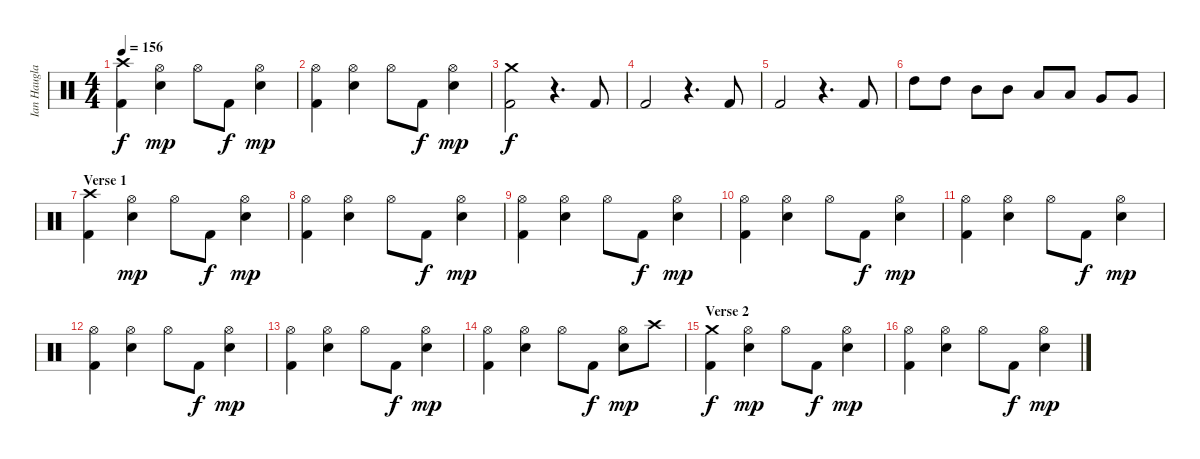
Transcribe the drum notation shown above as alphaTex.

\track ("Ian Haugland" "Ian Haugla") {instrument percussion}
\staff {score}
\articulation defaults
\ts (4 4)
\tempo 156
\clef neutral
\ks c
("Kick (hit) 2" "Crash high (hit)").4{dy f} ("Hi-Hat (open)" "Snare (hit) 2").4{dy mp} "Hi-Hat (open)".8 "Kick (hit) 2".8{dy f} ("Hi-Hat (open)" "Snare (hit) 2").4{dy mp} |
("Kick (hit) 2" "Hi-Hat (open)").4 ("Hi-Hat (open)" "Snare (hit) 2").4 "Hi-Hat (open)".8 "Kick (hit) 2".8{dy f} ("Hi-Hat (open)" "Snare (hit) 2").4{dy mp} |
("Kick (hit) 2" "Crash medium (hit)").2{dy f} r.4{d} "Kick (hit) 2".8 |
"Kick (hit) 2".2 r.4{d} "Kick (hit) 2".8 |
"Kick (hit) 2".2 r.4{d} "Kick (hit) 2".8 |
"High Tom (hit)".8 "High Tom (hit)".8 "Mid Tom (hit)".8 "Mid Tom (hit)".8 "Low Tom (hit)".8 "Low Tom (hit)".8 "Very Low Tom (hit)".8 "Very Low Tom (hit)".8 |
\section ("" "Verse 1")
("Kick (hit) 2" "Crash high (hit)").4 ("Hi-Hat (open)" "Snare (hit) 2").4{dy mp} "Hi-Hat (open)".8 "Kick (hit) 2".8{dy f} ("Hi-Hat (open)" "Snare (hit) 2").4{dy mp} |
("Kick (hit) 2" "Hi-Hat (open)").4 ("Hi-Hat (open)" "Snare (hit) 2").4 "Hi-Hat (open)".8 "Kick (hit) 2".8{dy f} ("Hi-Hat (open)" "Snare (hit) 2").4{dy mp} |
("Kick (hit) 2" "Hi-Hat (open)").4 ("Hi-Hat (open)" "Snare (hit) 2").4 "Hi-Hat (open)".8 "Kick (hit) 2".8{dy f} ("Hi-Hat (open)" "Snare (hit) 2").4{dy mp} |
("Kick (hit) 2" "Hi-Hat (open)").4 ("Hi-Hat (open)" "Snare (hit) 2").4 "Hi-Hat (open)".8 "Kick (hit) 2".8{dy f} ("Hi-Hat (open)" "Snare (hit) 2").4{dy mp} |
("Kick (hit) 2" "Hi-Hat (open)").4 ("Hi-Hat (open)" "Snare (hit) 2").4 "Hi-Hat (open)".8 "Kick (hit) 2".8{dy f} ("Hi-Hat (open)" "Snare (hit) 2").4{dy mp} |
("Kick (hit) 2" "Hi-Hat (open)").4 ("Hi-Hat (open)" "Snare (hit) 2").4 "Hi-Hat (open)".8 "Kick (hit) 2".8{dy f} ("Hi-Hat (open)" "Snare (hit) 2").4{dy mp} |
("Kick (hit) 2" "Hi-Hat (open)").4 ("Hi-Hat (open)" "Snare (hit) 2").4 "Hi-Hat (open)".8 "Kick (hit) 2".8{dy f} ("Hi-Hat (open)" "Snare (hit) 2").4{dy mp} |
("Kick (hit) 2" "Hi-Hat (open)").4 ("Hi-Hat (open)" "Snare (hit) 2").4 "Hi-Hat (open)".8 "Kick (hit) 2".8{dy f} ("Hi-Hat (open)" "Snare (hit) 2").8{dy mp} "Crash high (hit)".8 |
\section ("" "Verse 2")
("Kick (hit) 2" "Crash medium (hit)").4{dy f} ("Hi-Hat (open)" "Snare (hit) 2").4{dy mp} "Hi-Hat (open)".8 "Kick (hit) 2".8{dy f} ("Hi-Hat (open)" "Snare (hit) 2").4{dy mp} |
("Kick (hit) 2" "Hi-Hat (open)").4 ("Hi-Hat (open)" "Snare (hit) 2").4 "Hi-Hat (open)".8 "Kick (hit) 2".8{dy f} ("Hi-Hat (open)" "Snare (hit) 2").4{dy mp}
